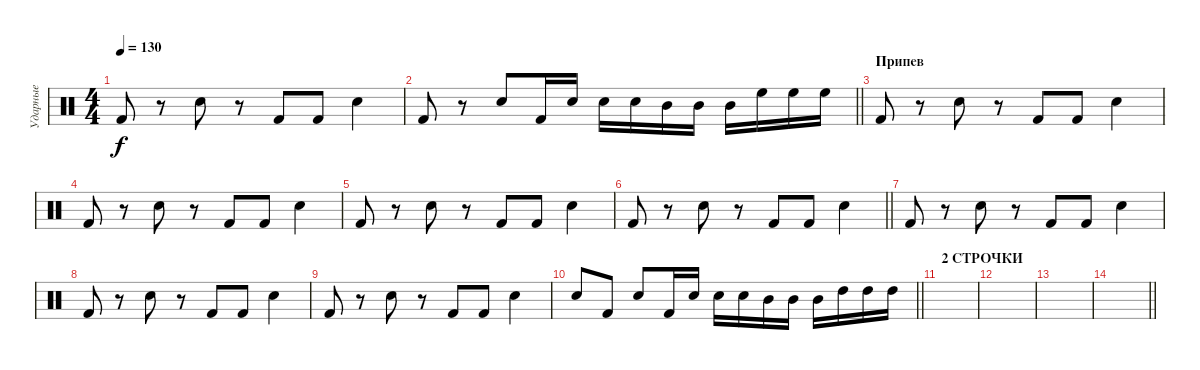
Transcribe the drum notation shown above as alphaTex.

\track ("Ударные" "Ударные") {instrument percussion}
\staff {score}
\articulation defaults
\ts (4 4)
\tempo 130
\clef neutral
\ks c "Kick (hit) 2".8{dy f}
r.8 "Snare (hit) 2".8 r.8 "Kick (hit) 2".8 "Kick (hit) 2".8 "Snare (hit) 2".4 |
\barLineRight lightlight "Kick (hit) 2".8
r.8 "Snare (hit) 2".8 "Kick (hit) 2".16 "Snare (hit) 2".16 "Snare (hit) 2".16 "Snare (hit) 2".16 "Mid Tom (hit)".16 "Mid Tom (hit)".16 "Mid Tom (hit)".16 "High Floor Tom (hit)".16 "High Floor Tom (hit)".16 "High Floor Tom (hit)".16 |
\section ("" "Припев")
"Kick (hit) 2".8 r.8 "Snare (hit) 2".8 r.8 "Kick (hit) 2".8 "Kick (hit) 2".8 "Snare (hit) 2".4 |
"Kick (hit) 2".8 r.8 "Snare (hit) 2".8 r.8 "Kick (hit) 2".8 "Kick (hit) 2".8 "Snare (hit) 2".4 |
"Kick (hit) 2".8 r.8 "Snare (hit) 2".8 r.8 "Kick (hit) 2".8 "Kick (hit) 2".8 "Snare (hit) 2".4 |
\barLineRight lightlight "Kick (hit) 2".8
r.8 "Snare (hit) 2".8 r.8 "Kick (hit) 2".8 "Kick (hit) 2".8 "Snare (hit) 2".4 |
"Kick (hit) 2".8 r.8 "Snare (hit) 2".8 r.8 "Kick (hit) 2".8 "Kick (hit) 2".8 "Snare (hit) 2".4 |
"Kick (hit) 2".8 r.8 "Snare (hit) 2".8 r.8 "Kick (hit) 2".8 "Kick (hit) 2".8 "Snare (hit) 2".4 |
"Kick (hit) 2".8 r.8 "Snare (hit) 2".8 r.8 "Kick (hit) 2".8 "Kick (hit) 2".8 "Snare (hit) 2".4 |
\barLineRight lightlight "Snare (hit) 2".8 "Kick (hit) 2".8 "Snare (hit) 2".8 "Kick (hit) 2".16 "Snare (hit) 2".16 "Snare (hit) 2".16 "Snare (hit) 2".16 "Mid Tom (hit)".16 "Mid Tom (hit)".16 "Mid Tom (hit)".16 "High Tom (hit)".16 "High Tom (hit)".16 "High Tom (hit)".16
|
\section ("" "2 СТРОЧКИ")
|
|
|
\barLineRight lightlight
